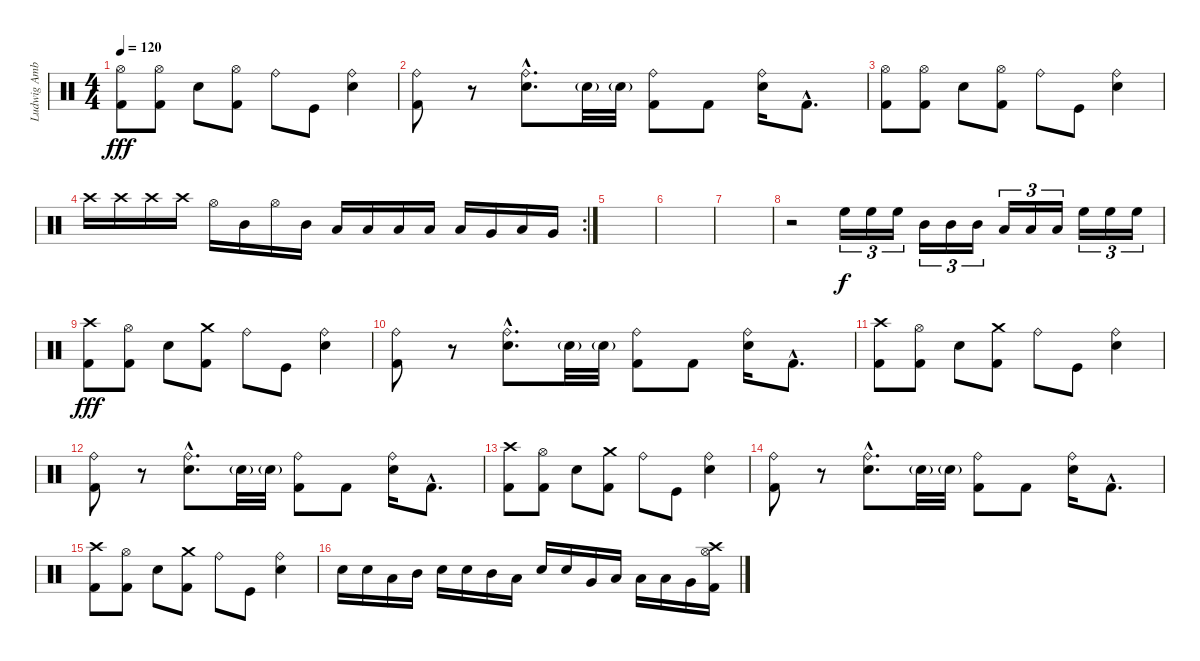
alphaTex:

\track ("Ludwig Amber Vistalite / 2x Bass Pedal" "Ludwig Amb") {instrument percussion}
\staff {score}
\articulation defaults
\ts (4 4)
\tempo 120
\clef neutral
\ks c
("Hi-Hat (open)" "Kick (hit) 2").8{dy fff} ("Hi-Hat (open)" "Kick (hit) 2").8 "Electric Snare (hit)".8 ("Hi-Hat (open)" "Kick (hit) 2").8 "Ride (bell)".8 "Kick (hit)".8 ("Ride (bell)" "Electric Snare (hit)").4 |
("Ride (bell)" "Kick (hit) 2").8 r.8 ("Ride (bell)"{hac} "Electric Snare (hit)"{hac}).8{d} "Electric Snare (hit)"{g}.32 "Electric Snare (hit)"{g}.32 ("Ride (bell)" "Kick (hit) 2").8 "Kick (hit) 2".8 ("Ride (bell)" "Electric Snare (hit)").16 "Kick (hit) 2"{hac}.8{d} |
("Hi-Hat (open)" "Kick (hit) 2").8 ("Hi-Hat (open)" "Kick (hit) 2").8 "Electric Snare (hit)".8 ("Hi-Hat (open)" "Kick (hit) 2").8 "Ride (bell)".8 "Kick (hit)".8 ("Ride (bell)" "Electric Snare (hit)").4 |
\rc 2 "Crash high (hit)".16{balance 0} "Crash high (hit)".16 "Crash high (hit)".16 "Crash high (hit)".16 "Hi-Hat (open)".16{balance 16} "Mid Tom (hit)".16 "Hi-Hat (open)".16 "Mid Tom (hit)".16 "Low Tom (hit)".16{balance 0} "Low Tom (hit)".16 "Low Tom (hit)".16 "Low Tom (hit)".16 "Low Floor Tom (hit)".16{balance 16} "Very Low Tom (hit)".16 "Low Tom (hit)".16 "Very Low Tom (hit)".16
|
|
|
|
r.2 "High Floor Tom (hit)".16{tu (3 2) dy f} "High Floor Tom (hit)".16{tu (3 2)} "High Floor Tom (hit)".16{tu (3 2)} "Mid Tom (hit)".16{tu (3 2)} "Mid Tom (hit)".16{tu (3 2)} "Mid Tom (hit)".16{tu (3 2)} "Low Tom (hit)".16{tu (3 2)} "Low Tom (hit)".16{tu (3 2)} "Low Tom (hit)".16{tu (3 2)} "High Floor Tom (hit)".16{tu (3 2)} "High Floor Tom (hit)".16{tu (3 2)} "High Floor Tom (hit)".16{tu (3 2)} |
("Crash high (hit)" "Kick (hit) 2").8{dy fff balance 5} ("Hi-Hat (open)" "Kick (hit) 2").8 "Electric Snare (hit)".8 ("Crash medium (hit)" "Kick (hit) 2").8 "Ride (bell)".8 "Kick (hit)".8 ("Ride (bell)" "Electric Snare (hit)").4 |
("Ride (bell)" "Kick (hit) 2").8 r.8 ("Ride (bell)"{hac} "Electric Snare (hit)"{hac}).8{d} "Electric Snare (hit)"{g}.32 "Electric Snare (hit)"{g}.32 ("Ride (bell)" "Kick (hit) 2").8 "Kick (hit) 2".8 ("Ride (bell)" "Electric Snare (hit)").16 "Kick (hit) 2"{hac}.8{d} |
("Crash high (hit)" "Kick (hit) 2").8 ("Hi-Hat (open)" "Kick (hit) 2").8 "Electric Snare (hit)".8 ("Crash medium (hit)" "Kick (hit) 2").8 "Ride (bell)".8 "Kick (hit)".8 ("Ride (bell)" "Electric Snare (hit)").4 |
("Ride (bell)" "Kick (hit) 2").8 r.8 ("Ride (bell)"{hac} "Electric Snare (hit)"{hac}).8{d} "Electric Snare (hit)"{g}.32 "Electric Snare (hit)"{g}.32 ("Ride (bell)" "Kick (hit) 2").8 "Kick (hit) 2".8 ("Ride (bell)" "Electric Snare (hit)").16 "Kick (hit) 2"{hac}.8{d} |
("Crash high (hit)" "Kick (hit) 2").8 ("Hi-Hat (open)" "Kick (hit) 2").8 "Electric Snare (hit)".8 ("Crash medium (hit)" "Kick (hit) 2").8 "Ride (bell)".8 "Kick (hit)".8 ("Ride (bell)" "Electric Snare (hit)").4 |
("Ride (bell)" "Kick (hit) 2").8 r.8 ("Ride (bell)"{hac} "Electric Snare (hit)"{hac}).8{d} "Electric Snare (hit)"{g}.32 "Electric Snare (hit)"{g}.32 ("Ride (bell)" "Kick (hit) 2").8 "Kick (hit) 2".8 ("Ride (bell)" "Electric Snare (hit)").16 "Kick (hit) 2"{hac}.8{d} |
("Crash high (hit)" "Kick (hit) 2").8 ("Hi-Hat (open)" "Kick (hit) 2").8 "Electric Snare (hit)".8 ("Crash medium (hit)" "Kick (hit) 2").8 "Ride (bell)".8 "Kick (hit)".8 ("Ride (bell)" "Electric Snare (hit)").4 |
"Electric Snare (hit)".16 "Electric Snare (hit)".16 "Low Tom (hit)".16 "Mid Tom (hit)".16 "Electric Snare (hit)".16 "Electric Snare (hit)".16 "Mid Tom (hit)".16 "Low Tom (hit)".16 "Electric Snare (hit)".16 "Electric Snare (hit)".16 "Very Low Tom (hit)".16 "Low Floor Tom (hit)".16 "Low Tom (hit)".16 "Low Tom (hit)".16 "Very Low Tom (hit)".16 ("Hi-Hat (open)" "Crash high (hit)" "Kick (hit) 2").16
